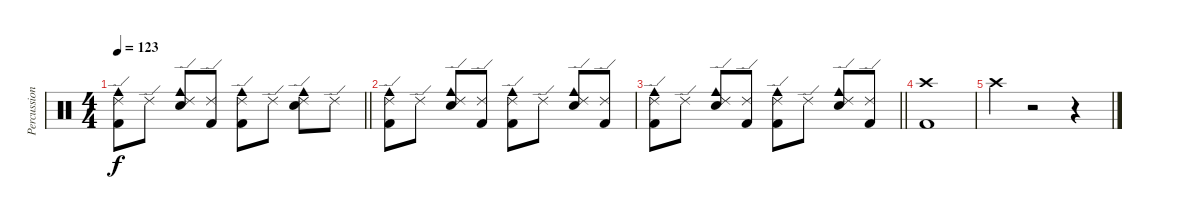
\track ("Percussion" "Percussion") {instrument percussion}
\staff {score}
\articulation defaults
\ts (4 4)
\tempo 123
\clef neutral
\barLineRight lightlight
\ks c
("Ride (edge) 2" "Kick (hit) 2" "Cowbell medium (hit)").8{dy f} "Ride (edge) 2".8 ("Ride (edge) 2" "Electric Snare (hit)" "Cowbell medium (hit)").8 ("Ride (edge) 2" "Kick (hit) 2").8 ("Ride (edge) 2" "Kick (hit) 2" "Cowbell medium (hit)").8 "Ride (edge) 2".8 ("Ride (edge) 2" "Electric Snare (hit)" "Cowbell medium (hit)").8 "Ride (edge) 2".8 |
("Ride (edge) 2" "Kick (hit) 2" "Cowbell medium (hit)").8 "Ride (edge) 2".8 ("Ride (edge) 2" "Electric Snare (hit)" "Cowbell medium (hit)").8 ("Ride (edge) 2" "Kick (hit) 2").8 ("Ride (edge) 2" "Kick (hit) 2" "Cowbell medium (hit)").8 "Ride (edge) 2".8 ("Ride (edge) 2" "Electric Snare (hit)" "Cowbell medium (hit)").8 ("Ride (edge) 2" "Kick (hit) 2").8 |
\barLineRight lightlight
("Ride (edge) 2" "Kick (hit) 2" "Cowbell medium (hit)").8 "Ride (edge) 2".8 ("Ride (edge) 2" "Electric Snare (hit)" "Cowbell medium (hit)").8 ("Ride (edge) 2" "Kick (hit) 2").8 ("Ride (edge) 2" "Kick (hit) 2" "Cowbell medium (hit)").8 "Ride (edge) 2".8 ("Ride (edge) 2" "Electric Snare (hit)" "Cowbell medium (hit)").8 ("Ride (edge) 2" "Kick (hit) 2").8 |
("Crash high (hit)" "Kick (hit) 2").1 |
"Crash high (hit)".4 r.2 r.4
